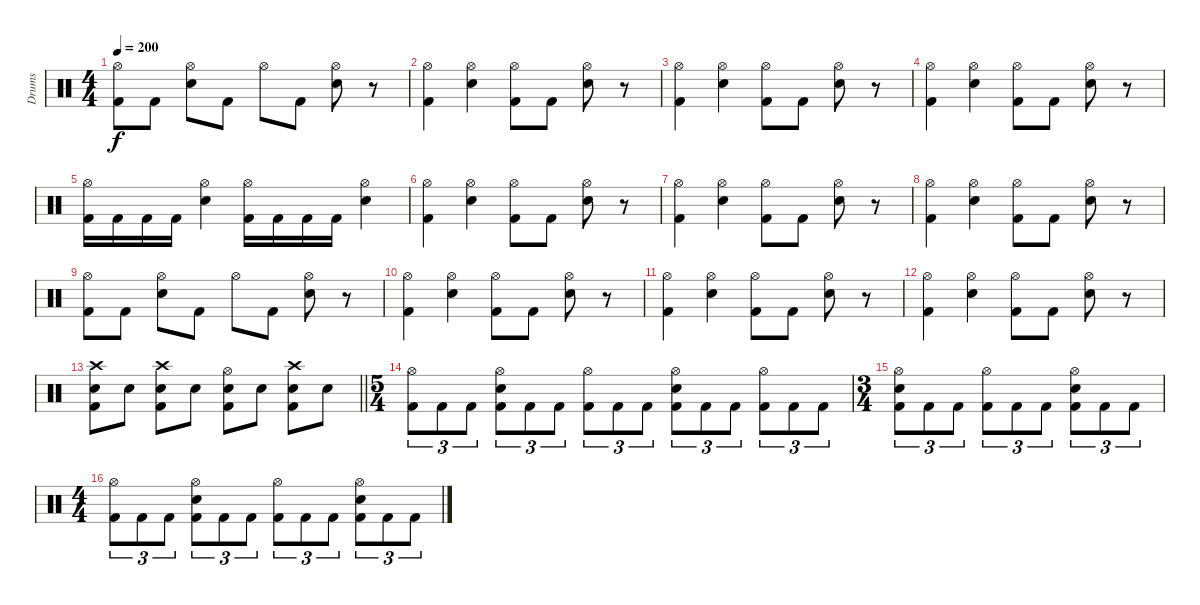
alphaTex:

\track ("Drums" "Drums") {instrument percussion}
\staff {score}
\articulation defaults
\ts (4 4)
\tempo 200
\clef neutral
\ks c
("Hi-Hat (open)" "Kick (hit) 2").8{dy f} "Kick (hit) 2".8 ("Hi-Hat (open)" "Electric Snare (hit)").8 "Kick (hit) 2".8 "Hi-Hat (open)".8 "Kick (hit) 2".8 ("Hi-Hat (open)" "Electric Snare (hit)").8 r.8 |
("Hi-Hat (open)" "Kick (hit) 2").4 ("Hi-Hat (open)" "Electric Snare (hit)").4 ("Hi-Hat (open)" "Kick (hit) 2").8 "Kick (hit) 2".8 ("Hi-Hat (open)" "Electric Snare (hit)").8 r.8 |
("Hi-Hat (open)" "Kick (hit) 2").4 ("Hi-Hat (open)" "Electric Snare (hit)").4 ("Hi-Hat (open)" "Kick (hit) 2").8 "Kick (hit) 2".8 ("Hi-Hat (open)" "Electric Snare (hit)").8 r.8 |
("Hi-Hat (open)" "Kick (hit) 2").4 ("Hi-Hat (open)" "Electric Snare (hit)").4 ("Hi-Hat (open)" "Kick (hit) 2").8 "Kick (hit) 2".8 ("Hi-Hat (open)" "Electric Snare (hit)").8 r.8 |
("Hi-Hat (open)" "Kick (hit) 2").16 "Kick (hit) 2".16 "Kick (hit) 2".16 "Kick (hit) 2".16 ("Hi-Hat (open)" "Electric Snare (hit)").4 ("Hi-Hat (open)" "Kick (hit) 2").16 "Kick (hit) 2".16 "Kick (hit) 2".16 "Kick (hit) 2".16 ("Hi-Hat (open)" "Electric Snare (hit)").4 |
("Hi-Hat (open)" "Kick (hit) 2").4 ("Hi-Hat (open)" "Electric Snare (hit)").4 ("Hi-Hat (open)" "Kick (hit) 2").8 "Kick (hit) 2".8 ("Hi-Hat (open)" "Electric Snare (hit)").8 r.8 |
("Hi-Hat (open)" "Kick (hit) 2").4 ("Hi-Hat (open)" "Electric Snare (hit)").4 ("Hi-Hat (open)" "Kick (hit) 2").8 "Kick (hit) 2".8 ("Hi-Hat (open)" "Electric Snare (hit)").8 r.8 |
("Hi-Hat (open)" "Kick (hit) 2").4 ("Hi-Hat (open)" "Electric Snare (hit)").4 ("Hi-Hat (open)" "Kick (hit) 2").8 "Kick (hit) 2".8 ("Hi-Hat (open)" "Electric Snare (hit)").8 r.8 |
("Hi-Hat (open)" "Kick (hit) 2").8 "Kick (hit) 2".8 ("Hi-Hat (open)" "Electric Snare (hit)").8 "Kick (hit) 2".8 "Hi-Hat (open)".8 "Kick (hit) 2".8 ("Hi-Hat (open)" "Electric Snare (hit)").8 r.8 |
("Hi-Hat (open)" "Kick (hit) 2").4 ("Hi-Hat (open)" "Electric Snare (hit)").4 ("Hi-Hat (open)" "Kick (hit) 2").8 "Kick (hit) 2".8 ("Hi-Hat (open)" "Electric Snare (hit)").8 r.8 |
("Hi-Hat (open)" "Kick (hit) 2").4 ("Hi-Hat (open)" "Electric Snare (hit)").4 ("Hi-Hat (open)" "Kick (hit) 2").8 "Kick (hit) 2".8 ("Hi-Hat (open)" "Electric Snare (hit)").8 r.8 |
("Hi-Hat (open)" "Kick (hit) 2").4 ("Hi-Hat (open)" "Electric Snare (hit)").4 ("Hi-Hat (open)" "Kick (hit) 2").8 "Kick (hit) 2".8 ("Hi-Hat (open)" "Electric Snare (hit)").8 r.8 |
\barLineRight lightlight
("Crash high (hit)" "Electric Snare (hit)" "Kick (hit) 2").8 "Electric Snare (hit)".8 ("Crash high (hit)" "Electric Snare (hit)" "Kick (hit) 2").8 "Electric Snare (hit)".8 ("Hi-Hat (open)" "Electric Snare (hit)" "Kick (hit) 2").8 "Electric Snare (hit)".8 ("Crash high (hit)" "Electric Snare (hit)" "Kick (hit) 2").8 "Electric Snare (hit)".8 |
\ts (5 4)
("Hi-Hat (open)" "Kick (hit) 2").8{tu (3 2)} "Kick (hit) 2".8{tu (3 2)} "Kick (hit) 2".8{tu (3 2)} ("Hi-Hat (open)" "Electric Snare (hit)" "Kick (hit) 2").8{tu (3 2)} "Kick (hit) 2".8{tu (3 2)} "Kick (hit) 2".8{tu (3 2)} ("Hi-Hat (open)" "Kick (hit) 2").8{tu (3 2)} "Kick (hit) 2".8{tu (3 2)} "Kick (hit) 2".8{tu (3 2)} ("Hi-Hat (open)" "Electric Snare (hit)" "Kick (hit) 2").8{tu (3 2)} "Kick (hit) 2".8{tu (3 2)} "Kick (hit) 2".8{tu (3 2)} ("Hi-Hat (open)" "Kick (hit) 2").8{tu (3 2)} "Kick (hit) 2".8{tu (3 2)} "Kick (hit) 2".8{tu (3 2)} |
\ts (3 4)
("Hi-Hat (open)" "Electric Snare (hit)" "Kick (hit) 2").8{tu (3 2)} "Kick (hit) 2".8{tu (3 2)} "Kick (hit) 2".8{tu (3 2)} ("Hi-Hat (open)" "Kick (hit) 2").8{tu (3 2)} "Kick (hit) 2".8{tu (3 2)} "Kick (hit) 2".8{tu (3 2)} ("Hi-Hat (open)" "Electric Snare (hit)" "Kick (hit) 2").8{tu (3 2)} "Kick (hit) 2".8{tu (3 2)} "Kick (hit) 2".8{tu (3 2)} |
\ts (4 4)
("Hi-Hat (open)" "Kick (hit) 2").8{tu (3 2)} "Kick (hit) 2".8{tu (3 2)} "Kick (hit) 2".8{tu (3 2)} ("Hi-Hat (open)" "Electric Snare (hit)" "Kick (hit) 2").8{tu (3 2)} "Kick (hit) 2".8{tu (3 2)} "Kick (hit) 2".8{tu (3 2)} ("Hi-Hat (open)" "Kick (hit) 2").8{tu (3 2)} "Kick (hit) 2".8{tu (3 2)} "Kick (hit) 2".8{tu (3 2)} ("Hi-Hat (open)" "Electric Snare (hit)" "Kick (hit) 2").8{tu (3 2)} "Kick (hit) 2".8{tu (3 2)} "Kick (hit) 2".8{tu (3 2)}
